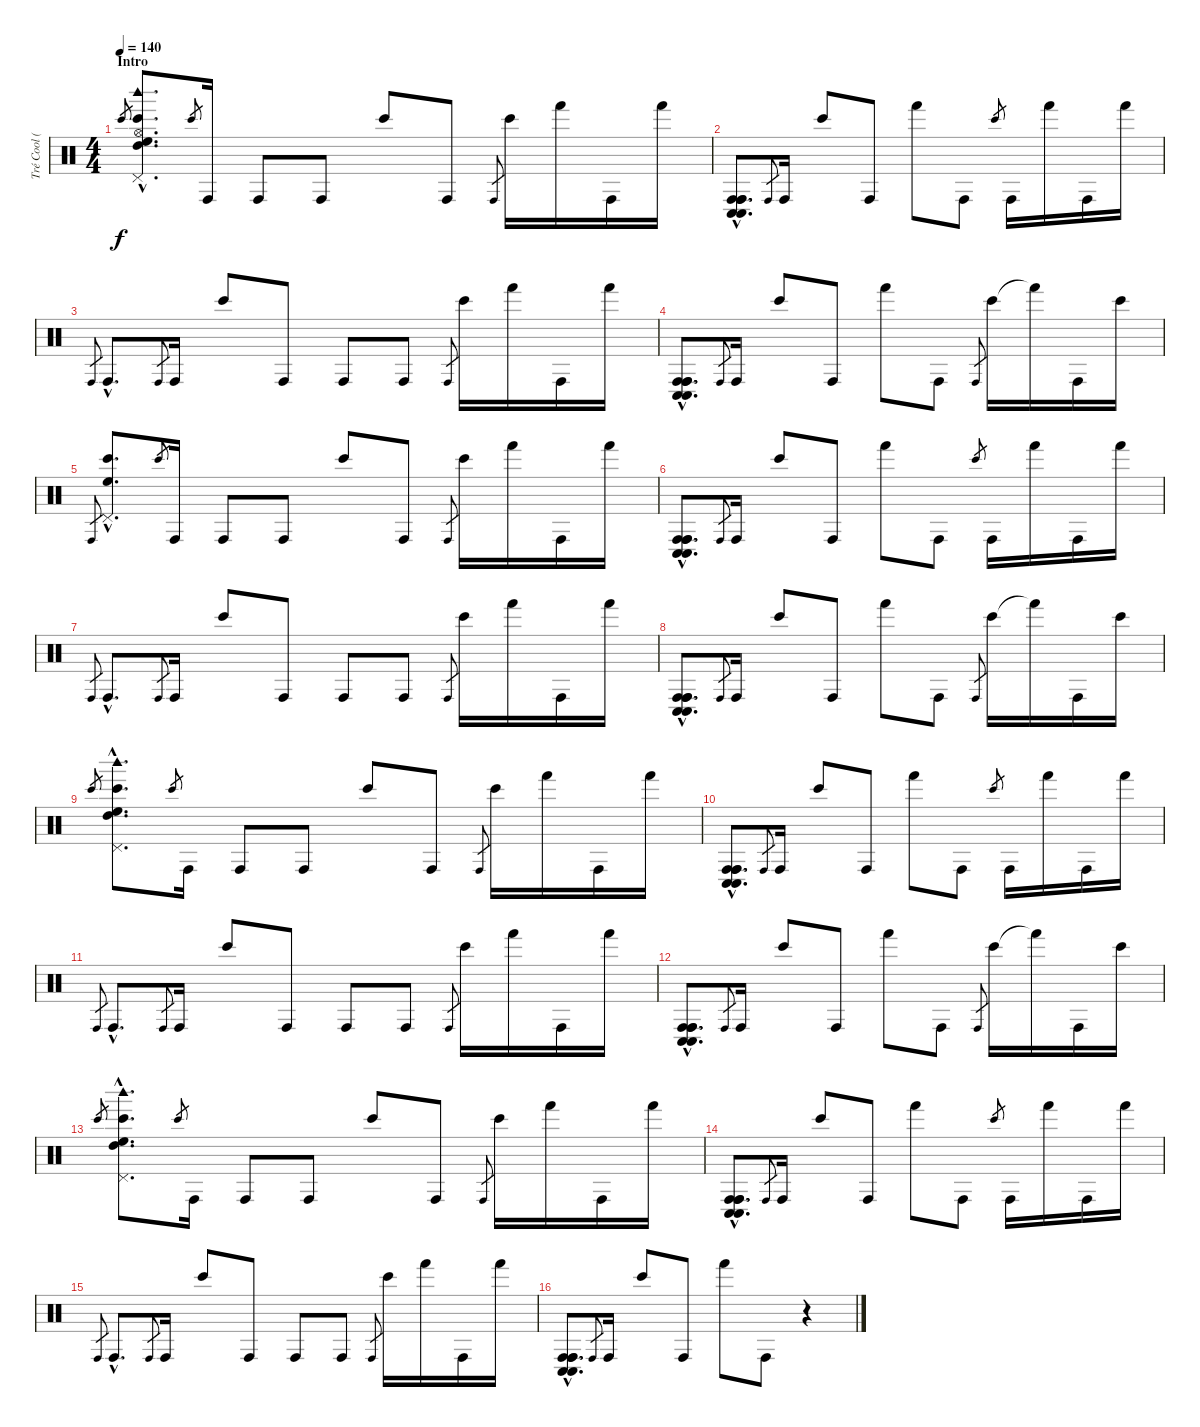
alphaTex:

\track ("Tré Cool (Bongos)" "Tré Cool (") {instrument percussion}
\staff {score}
\articulation defaults
\ts (4 4)
\section ("" "Intro")
\tempo 140
\tempo 120
\tempo 140
\clef neutral
\ks c "Bongo High (hit)".8{gr dy f}
("Bongo High (hit)"{hac} "High Floor Tom (hit)"{hac} "Pedal Hi-Hat (hit)"{hac} "High Tom (hit)"{hac} "Woodblock high (hit)"{hac} "Hi-Hat (open)"{hac}).8{d} "Bongo High (hit)".8{gr} "Conga high (hit)".16 "Conga high (hit)".8 "Conga high (hit)".8 "Bongo High (hit)".8 "Conga high (hit)".8 "Conga high (hit)".8{gr} "Bongo High (hit)".16 "Hand (hit)".16 "Conga high (hit)".16 "Hand (hit)".16 |
("Conga low (hit)"{hac} "Conga low (hit)"{hac} "Conga high (hit)"{hac} "Conga high (hit)"{hac} "Conga high (hit)"{hac}).8{d} "Conga high (hit)".8{gr} "Conga high (hit)".16 "Bongo High (hit)".8 "Conga high (hit)".8 "Hand (hit)".8 "Conga high (hit)".8 "Bongo High (hit)".8{gr} "Conga high (hit)".16 "Hand (hit)".16 "Conga high (hit)".16 "Hand (hit)".16 |
"Conga high (hit)".8{gr} "Conga high (hit)"{hac}.8{d} "Conga high (hit)".8{gr} "Conga high (hit)".16 "Bongo High (hit)".8 "Conga high (hit)".8 "Conga high (hit)".8 "Conga high (hit)".8 "Conga high (hit)".8{gr} "Bongo High (hit)".16 "Hand (hit)".16 "Conga high (hit)".16 "Hand (hit)".16 |
("Conga low (hit)"{hac} "Conga low (hit)"{hac} "Conga high (hit)"{hac} "Conga high (hit)"{hac} "Conga high (hit)"{hac}).8{d} "Conga high (hit)".8{gr} "Conga high (hit)".16 "Bongo High (hit)".8 "Conga high (hit)".8 "Hand (hit)".8 "Conga high (hit)".8 "Conga high (hit)".8{gr} "Bongo High (hit)".16 "Hand (hit)"{t}.16 "Conga high (hit)".16 "Bongo High (hit)".16 |
"Conga high (hit)".8{gr} ("Bongo High (hit)"{hac} "High Floor Tom (hit)"{hac} "Pedal Hi-Hat (hit)"{hac}).8{d} "Bongo High (hit)".8{gr} "Conga high (hit)".16 "Conga high (hit)".8 "Conga high (hit)".8 "Bongo High (hit)".8 "Conga high (hit)".8 "Conga high (hit)".8{gr} "Bongo High (hit)".16 "Hand (hit)".16 "Conga high (hit)".16 "Hand (hit)".16 |
("Conga low (hit)"{hac} "Conga low (hit)"{hac} "Conga high (hit)"{hac} "Conga high (hit)"{hac} "Conga high (hit)"{hac}).8{d} "Conga high (hit)".8{gr} "Conga high (hit)".16 "Bongo High (hit)".8 "Conga high (hit)".8 "Hand (hit)".8 "Conga high (hit)".8 "Bongo High (hit)".8{gr} "Conga high (hit)".16 "Hand (hit)".16 "Conga high (hit)".16 "Hand (hit)".16 |
"Conga high (hit)".8{gr} "Conga high (hit)"{hac}.8{d} "Conga high (hit)".8{gr} "Conga high (hit)".16 "Bongo High (hit)".8 "Conga high (hit)".8 "Conga high (hit)".8 "Conga high (hit)".8 "Conga high (hit)".8{gr} "Bongo High (hit)".16 "Hand (hit)".16 "Conga high (hit)".16 "Hand (hit)".16 |
("Conga low (hit)"{hac} "Conga low (hit)"{hac} "Conga high (hit)"{hac} "Conga high (hit)"{hac} "Conga high (hit)"{hac}).8{d} "Conga high (hit)".8{gr} "Conga high (hit)".16 "Bongo High (hit)".8 "Conga high (hit)".8 "Hand (hit)".8 "Conga high (hit)".8 "Conga high (hit)".8{gr} "Bongo High (hit)".16 "Hand (hit)"{t}.16 "Conga high (hit)".16 "Bongo High (hit)".16 |
"Bongo High (hit)".8{gr} ("Bongo High (hit)"{hac} "High Floor Tom (hit)"{hac} "Pedal Hi-Hat (hit)"{hac} "High Tom (hit)"{hac} "Woodblock high (hit)"{hac}).8{d} "Bongo High (hit)".8{gr} "Conga high (hit)".16 "Conga high (hit)".8 "Conga high (hit)".8 "Bongo High (hit)".8 "Conga high (hit)".8 "Conga high (hit)".8{gr} "Bongo High (hit)".16 "Hand (hit)".16 "Conga high (hit)".16 "Hand (hit)".16 |
("Conga low (hit)"{hac} "Conga low (hit)"{hac} "Conga high (hit)"{hac} "Conga high (hit)"{hac} "Conga high (hit)"{hac}).8{d} "Conga high (hit)".8{gr} "Conga high (hit)".16 "Bongo High (hit)".8 "Conga high (hit)".8 "Hand (hit)".8 "Conga high (hit)".8 "Bongo High (hit)".8{gr} "Conga high (hit)".16 "Hand (hit)".16 "Conga high (hit)".16 "Hand (hit)".16 |
"Conga high (hit)".8{gr} "Conga high (hit)"{hac}.8{d} "Conga high (hit)".8{gr} "Conga high (hit)".16 "Bongo High (hit)".8 "Conga high (hit)".8 "Conga high (hit)".8 "Conga high (hit)".8 "Conga high (hit)".8{gr} "Bongo High (hit)".16 "Hand (hit)".16 "Conga high (hit)".16 "Hand (hit)".16 |
("Conga low (hit)"{hac} "Conga low (hit)"{hac} "Conga high (hit)"{hac} "Conga high (hit)"{hac} "Conga high (hit)"{hac}).8{d} "Conga high (hit)".8{gr} "Conga high (hit)".16 "Bongo High (hit)".8 "Conga high (hit)".8 "Hand (hit)".8 "Conga high (hit)".8 "Conga high (hit)".8{gr} "Bongo High (hit)".16 "Hand (hit)"{t}.16 "Conga high (hit)".16 "Bongo High (hit)".16 |
"Bongo High (hit)".8{gr} ("Bongo High (hit)"{hac} "High Floor Tom (hit)"{hac} "Pedal Hi-Hat (hit)"{hac} "High Tom (hit)"{hac} "Woodblock high (hit)"{hac}).8{d} "Bongo High (hit)".8{gr} "Conga high (hit)".16 "Conga high (hit)".8 "Conga high (hit)".8 "Bongo High (hit)".8 "Conga high (hit)".8 "Conga high (hit)".8{gr} "Bongo High (hit)".16 "Hand (hit)".16 "Conga high (hit)".16 "Hand (hit)".16 |
("Conga low (hit)"{hac} "Conga low (hit)"{hac} "Conga high (hit)"{hac} "Conga high (hit)"{hac} "Conga high (hit)"{hac}).8{d} "Conga high (hit)".8{gr} "Conga high (hit)".16 "Bongo High (hit)".8 "Conga high (hit)".8 "Hand (hit)".8 "Conga high (hit)".8 "Bongo High (hit)".8{gr} "Conga high (hit)".16 "Hand (hit)".16 "Conga high (hit)".16 "Hand (hit)".16 |
"Conga high (hit)".8{gr} "Conga high (hit)"{hac}.8{d} "Conga high (hit)".8{gr} "Conga high (hit)".16 "Bongo High (hit)".8 "Conga high (hit)".8 "Conga high (hit)".8 "Conga high (hit)".8 "Conga high (hit)".8{gr} "Bongo High (hit)".16 "Hand (hit)".16 "Conga high (hit)".16 "Hand (hit)".16 |
("Conga low (hit)"{hac} "Conga low (hit)"{hac} "Conga high (hit)"{hac} "Conga high (hit)"{hac} "Conga high (hit)"{hac}).8{d} "Conga high (hit)".8{gr} "Conga high (hit)".16 "Bongo High (hit)".8 "Conga high (hit)".8 "Hand (hit)".8 "Conga high (hit)".8 r.4
